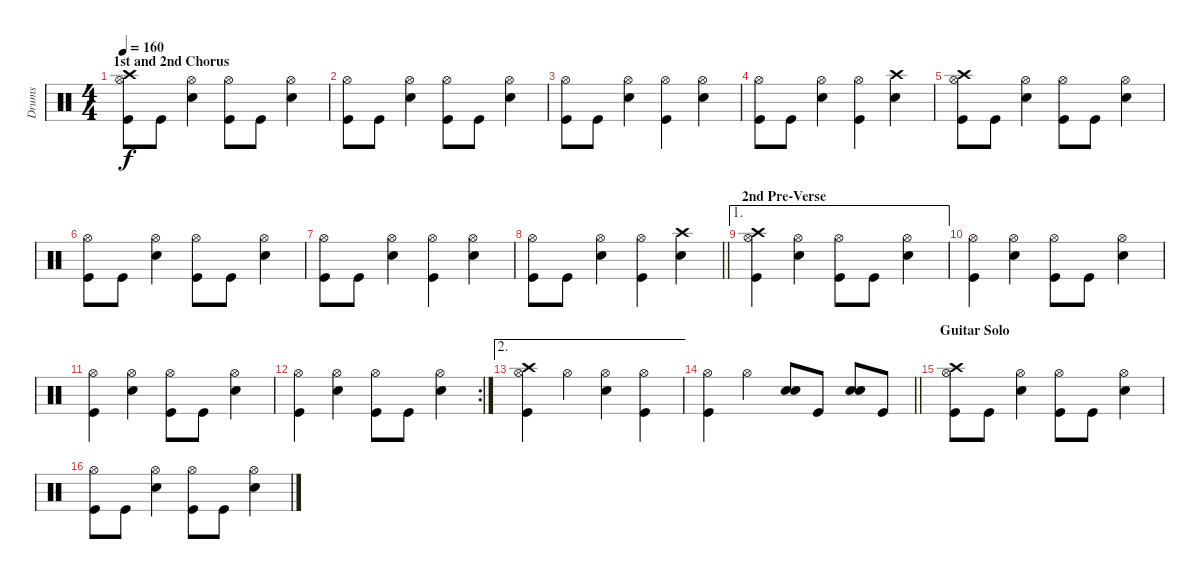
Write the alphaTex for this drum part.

\track ("Drums" "Drums") {instrument percussion}
\staff {score}
\articulation defaults
\ts (4 4)
\section ("" "1st and 2nd Chorus")
\tempo 160
\clef neutral
\ks c
("Crash high (hit)" "Hi-Hat (open)" "Kick (hit)").8{dy f} "Kick (hit)".8 ("Hi-Hat (open)" "Snare (hit) 2").4 ("Hi-Hat (open)" "Kick (hit)").8 "Kick (hit)".8 ("Hi-Hat (open)" "Snare (hit) 2").4 |
("Hi-Hat (open)" "Kick (hit)").8 "Kick (hit)".8 ("Hi-Hat (open)" "Snare (hit) 2").4 ("Hi-Hat (open)" "Kick (hit)").8 "Kick (hit)".8 ("Hi-Hat (open)" "Snare (hit) 2").4 |
("Hi-Hat (open)" "Kick (hit)").8 "Kick (hit)".8 ("Hi-Hat (open)" "Snare (hit) 2").4 ("Hi-Hat (open)" "Kick (hit)").4 ("Hi-Hat (open)" "Snare (hit) 2").4 |
("Hi-Hat (open)" "Kick (hit)").8 "Kick (hit)".8 ("Hi-Hat (open)" "Snare (hit) 2").4 ("Hi-Hat (open)" "Kick (hit)").4 ("Crash high (hit)" "Snare (hit) 2").4 |
("Crash high (hit)" "Hi-Hat (open)" "Kick (hit)").8 "Kick (hit)".8 ("Hi-Hat (open)" "Snare (hit) 2").4 ("Hi-Hat (open)" "Kick (hit)").8 "Kick (hit)".8 ("Hi-Hat (open)" "Snare (hit) 2").4 |
("Hi-Hat (open)" "Kick (hit)").8 "Kick (hit)".8 ("Hi-Hat (open)" "Snare (hit) 2").4 ("Hi-Hat (open)" "Kick (hit)").8 "Kick (hit)".8 ("Hi-Hat (open)" "Snare (hit) 2").4 |
("Hi-Hat (open)" "Kick (hit)").8 "Kick (hit)".8 ("Hi-Hat (open)" "Snare (hit) 2").4 ("Hi-Hat (open)" "Kick (hit)").4 ("Hi-Hat (open)" "Snare (hit) 2").4 |
\barLineRight lightlight
("Hi-Hat (open)" "Kick (hit)").8 "Kick (hit)".8 ("Hi-Hat (open)" "Snare (hit) 2").4 ("Hi-Hat (open)" "Kick (hit)").4 ("Crash high (hit)" "Snare (hit) 2").4 |
\ae 1
\section ("" "2nd Pre-Verse")
("Crash high (hit)" "Hi-Hat (open)" "Kick (hit)").4 ("Hi-Hat (open)" "Snare (hit) 2").4 ("Hi-Hat (open)" "Kick (hit)").8 "Kick (hit)".8 ("Hi-Hat (open)" "Snare (hit) 2").4 |
("Hi-Hat (open)" "Kick (hit)").4 ("Hi-Hat (open)" "Snare (hit) 2").4 ("Hi-Hat (open)" "Kick (hit)").8 "Kick (hit)".8 ("Hi-Hat (open)" "Snare (hit) 2").4 |
("Hi-Hat (open)" "Kick (hit)").4 ("Hi-Hat (open)" "Snare (hit) 2").4 ("Hi-Hat (open)" "Kick (hit)").8 "Kick (hit)".8 ("Hi-Hat (open)" "Snare (hit) 2").4 |
\rc 2
("Hi-Hat (open)" "Kick (hit)").4 ("Hi-Hat (open)" "Snare (hit) 2").4 ("Hi-Hat (open)" "Kick (hit)").8 "Kick (hit)".8 ("Hi-Hat (open)" "Snare (hit) 2").4 |
\ae 2
("Crash high (hit)" "Hi-Hat (open)" "Kick (hit)").4 "Hi-Hat (open)".4 ("Hi-Hat (open)" "Snare (hit) 2").4 ("Hi-Hat (open)" "Kick (hit)").4 |
\barLineRight lightlight
("Hi-Hat (open)" "Kick (hit)").4 "Hi-Hat (open)".4 ("Snare (hit) 2" "Snare (hit) 2").8{bd 120} "Kick (hit)".8 ("Snare (hit) 2" "Snare (hit) 2").8{bd 120} "Kick (hit)".8 |
\section ("" "Guitar Solo")
("Crash high (hit)" "Hi-Hat (open)" "Kick (hit)").8 "Kick (hit)".8 ("Hi-Hat (open)" "Snare (hit) 2").4 ("Hi-Hat (open)" "Kick (hit)").8 "Kick (hit)".8 ("Hi-Hat (open)" "Snare (hit) 2").4 |
("Hi-Hat (open)" "Kick (hit)").8 "Kick (hit)".8 ("Hi-Hat (open)" "Snare (hit) 2").4 ("Hi-Hat (open)" "Kick (hit)").8 "Kick (hit)".8 ("Hi-Hat (open)" "Snare (hit) 2").4
